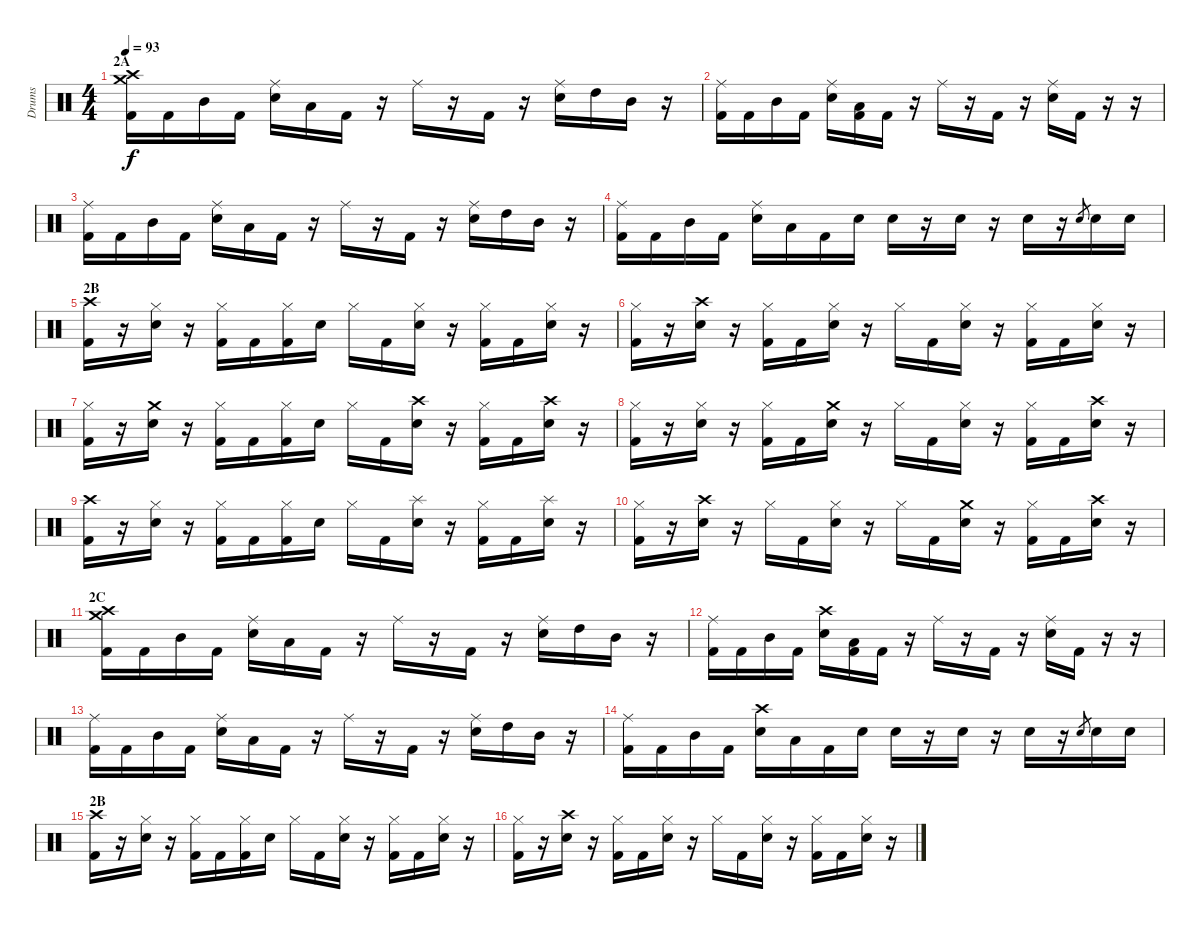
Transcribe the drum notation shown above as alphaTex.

\track ("Drums" "Drums") {instrument percussion}
\staff {score}
\articulation defaults
\ts (4 4)
\section ("" "2A")
\tempo 93
\clef neutral
\ks c
("Crash high (hit)" "Crash medium (hit)" "Kick (hit) 2").16{dy f volume 16} "Kick (hit) 2".16 "Mid Tom (hit)".16 "Kick (hit) 2".16 ("Ride (middle)" "Electric Snare (hit)").16 "Low Floor Tom (hit)".16 "Kick (hit) 2".16 r.16 "Ride (middle)".16 r.16 "Kick (hit) 2".16 r.16 ("Ride (middle)" "Electric Snare (hit)").16 "High Tom (hit)".16 "Mid Tom (hit)".16 r.16 |
("Ride (middle)" "Kick (hit) 2").16 "Kick (hit) 2".16 "Mid Tom (hit)".16 "Kick (hit) 2".16 ("Ride (middle)" "Electric Snare (hit)").16 ("Low Floor Tom (hit)" "Kick (hit) 2").16 "Kick (hit) 2".16 r.16 "Ride (middle)".16 r.16 "Kick (hit) 2".16 r.16 ("Ride (middle)" "Electric Snare (hit)").16 "Kick (hit) 2".16 r.16 r.16 |
("Ride (middle)" "Kick (hit) 2").16 "Kick (hit) 2".16 "Mid Tom (hit)".16 "Kick (hit) 2".16 ("Ride (middle)" "Electric Snare (hit)").16 "Low Floor Tom (hit)".16 "Kick (hit) 2".16 r.16 "Ride (middle)".16 r.16 "Kick (hit) 2".16 r.16 ("Ride (middle)" "Electric Snare (hit)").16 "High Tom (hit)".16 "Mid Tom (hit)".16 r.16 |
("Ride (middle)" "Kick (hit) 2").16 "Kick (hit) 2".16 "Mid Tom (hit)".16 "Kick (hit) 2".16 ("Ride (middle)" "Electric Snare (hit)").16 "Low Floor Tom (hit)".16 "Kick (hit) 2".16 "Electric Snare (hit)".16 "Electric Snare (hit)".16 r.16 "Electric Snare (hit)".16 r.16 "Electric Snare (hit)".16 r.16 "Electric Snare (hit)".8{gr} "Electric Snare (hit)".16 "Electric Snare (hit)".16 |
\section ("" "2B")
("Crash high (hit)" "Kick (hit) 2").16 r.16 ("Hi-Hat (closed)" "Electric Snare (hit)").16 r.16 ("Hi-Hat (closed)" "Kick (hit) 2").16 "Kick (hit) 2".16 ("Hi-Hat (closed)" "Kick (hit) 2").16 "Electric Snare (hit)".16 "Hi-Hat (closed)".16 "Kick (hit) 2".16 ("Hi-Hat (closed)" "Electric Snare (hit)").16 r.16 ("Hi-Hat (closed)" "Kick (hit) 2").16 "Kick (hit) 2".16 ("Hi-Hat (closed)" "Electric Snare (hit)").16 r.16 |
("Hi-Hat (closed)" "Kick (hit) 2").16 r.16 ("Crash high (hit)" "Electric Snare (hit)").16 r.16 ("Hi-Hat (closed)" "Kick (hit) 2").16 "Kick (hit) 2".16 ("Hi-Hat (closed)" "Electric Snare (hit)").16 r.16 "Hi-Hat (closed)".16 "Kick (hit) 2".16 ("Hi-Hat (closed)" "Electric Snare (hit)").16 r.16 ("Hi-Hat (closed)" "Kick (hit) 2").16 "Kick (hit) 2".16 ("Hi-Hat (closed)" "Electric Snare (hit)").16 r.16 |
("Hi-Hat (closed)" "Kick (hit) 2").16 r.16 ("Crash medium (hit)" "Electric Snare (hit)").16 r.16 ("Hi-Hat (closed)" "Kick (hit) 2").16 "Kick (hit) 2".16 ("Hi-Hat (closed)" "Kick (hit) 2").16 "Electric Snare (hit)".16 "Hi-Hat (closed)".16 "Kick (hit) 2".16 ("Crash high (hit)" "Electric Snare (hit)").16 r.16 ("Hi-Hat (closed)" "Kick (hit) 2").16 "Kick (hit) 2".16 ("Crash high (hit)" "Electric Snare (hit)").16 r.16 |
("Hi-Hat (closed)" "Kick (hit) 2").16 r.16 ("Hi-Hat (closed)" "Electric Snare (hit)").16 r.16 ("Hi-Hat (closed)" "Kick (hit) 2").16 "Kick (hit) 2".16 ("Crash medium (hit)" "Electric Snare (hit)").16 r.16 "Hi-Hat (closed)".16 "Kick (hit) 2".16 ("Hi-Hat (closed)" "Electric Snare (hit)").16 r.16 ("Hi-Hat (closed)" "Kick (hit) 2").16 "Kick (hit) 2".16 ("Crash high (hit)" "Electric Snare (hit)").16 r.16 |
("Crash high (hit)" "Kick (hit) 2").16 r.16 ("Hi-Hat (closed)" "Electric Snare (hit)").16 r.16 ("Hi-Hat (closed)" "Kick (hit) 2").16 "Kick (hit) 2".16 ("Hi-Hat (closed)" "Kick (hit) 2").16 "Electric Snare (hit)".16 "Hi-Hat (closed)".16 "Kick (hit) 2".16 ("Splash (hit)" "Electric Snare (hit)").16 r.16 ("Hi-Hat (closed)" "Kick (hit) 2").16 "Kick (hit) 2".16 ("Splash (hit)" "Electric Snare (hit)").16 r.16 |
("Hi-Hat (closed)" "Kick (hit) 2").16 r.16 ("Crash high (hit)" "Electric Snare (hit)").16 r.16 "Hi-Hat (closed)".16 "Kick (hit) 2".16 ("Hi-Hat (closed)" "Electric Snare (hit)").16 r.16 "Hi-Hat (closed)".16 "Kick (hit) 2".16 ("Crash medium (hit)" "Electric Snare (hit)").16 r.16 ("Hi-Hat (closed)" "Kick (hit) 2").16 "Kick (hit) 2".16 ("Crash high (hit)" "Electric Snare (hit)").16 r.16 |
\section ("" "2C")
("Crash high (hit)" "Crash medium (hit)" "Kick (hit) 2").16 "Kick (hit) 2".16 "Mid Tom (hit)".16 "Kick (hit) 2".16 ("Ride (middle)" "Electric Snare (hit)").16 "Low Floor Tom (hit)".16 "Kick (hit) 2".16 r.16 "Ride (middle)".16 r.16 "Kick (hit) 2".16 r.16 ("Ride (middle)" "Electric Snare (hit)").16 "High Tom (hit)".16 "Mid Tom (hit)".16 r.16 |
("Ride (middle)" "Kick (hit) 2").16 "Kick (hit) 2".16 "Mid Tom (hit)".16 "Kick (hit) 2".16 ("Crash high (hit)" "Electric Snare (hit)").16 ("Low Floor Tom (hit)" "Kick (hit) 2").16 "Kick (hit) 2".16 r.16 "Ride (middle)".16 r.16 "Kick (hit) 2".16 r.16 ("Ride (middle)" "Electric Snare (hit)").16 "Kick (hit) 2".16 r.16 r.16 |
("Ride (middle)" "Kick (hit) 2").16 "Kick (hit) 2".16 "Mid Tom (hit)".16 "Kick (hit) 2".16 ("Ride (middle)" "Electric Snare (hit)").16 "Low Floor Tom (hit)".16 "Kick (hit) 2".16 r.16 "Ride (middle)".16 r.16 "Kick (hit) 2".16 r.16 ("Ride (middle)" "Electric Snare (hit)").16 "High Tom (hit)".16 "Mid Tom (hit)".16 r.16 |
("Ride (middle)" "Kick (hit) 2").16 "Kick (hit) 2".16 "Mid Tom (hit)".16 "Kick (hit) 2".16 ("Crash high (hit)" "Electric Snare (hit)").16 "Low Floor Tom (hit)".16 "Kick (hit) 2".16 "Electric Snare (hit)".16 "Electric Snare (hit)".16 r.16 "Electric Snare (hit)".16 r.16 "Electric Snare (hit)".16 r.16 "Electric Snare (hit)".8{gr} "Electric Snare (hit)".16 "Electric Snare (hit)".16 |
\section ("" "2B")
("Crash high (hit)" "Kick (hit) 2").16 r.16 ("Hi-Hat (closed)" "Electric Snare (hit)").16 r.16 ("Hi-Hat (closed)" "Kick (hit) 2").16 "Kick (hit) 2".16 ("Hi-Hat (closed)" "Kick (hit) 2").16 "Electric Snare (hit)".16 "Hi-Hat (closed)".16 "Kick (hit) 2".16 ("Hi-Hat (closed)" "Electric Snare (hit)").16 r.16 ("Hi-Hat (closed)" "Kick (hit) 2").16 "Kick (hit) 2".16 ("Hi-Hat (closed)" "Electric Snare (hit)").16 r.16 |
("Hi-Hat (closed)" "Kick (hit) 2").16 r.16 ("Crash high (hit)" "Electric Snare (hit)").16 r.16 ("Hi-Hat (closed)" "Kick (hit) 2").16 "Kick (hit) 2".16 ("Hi-Hat (closed)" "Electric Snare (hit)").16 r.16 "Hi-Hat (closed)".16 "Kick (hit) 2".16 ("Hi-Hat (closed)" "Electric Snare (hit)").16 r.16 ("Hi-Hat (closed)" "Kick (hit) 2").16 "Kick (hit) 2".16 ("Hi-Hat (closed)" "Electric Snare (hit)").16 r.16
